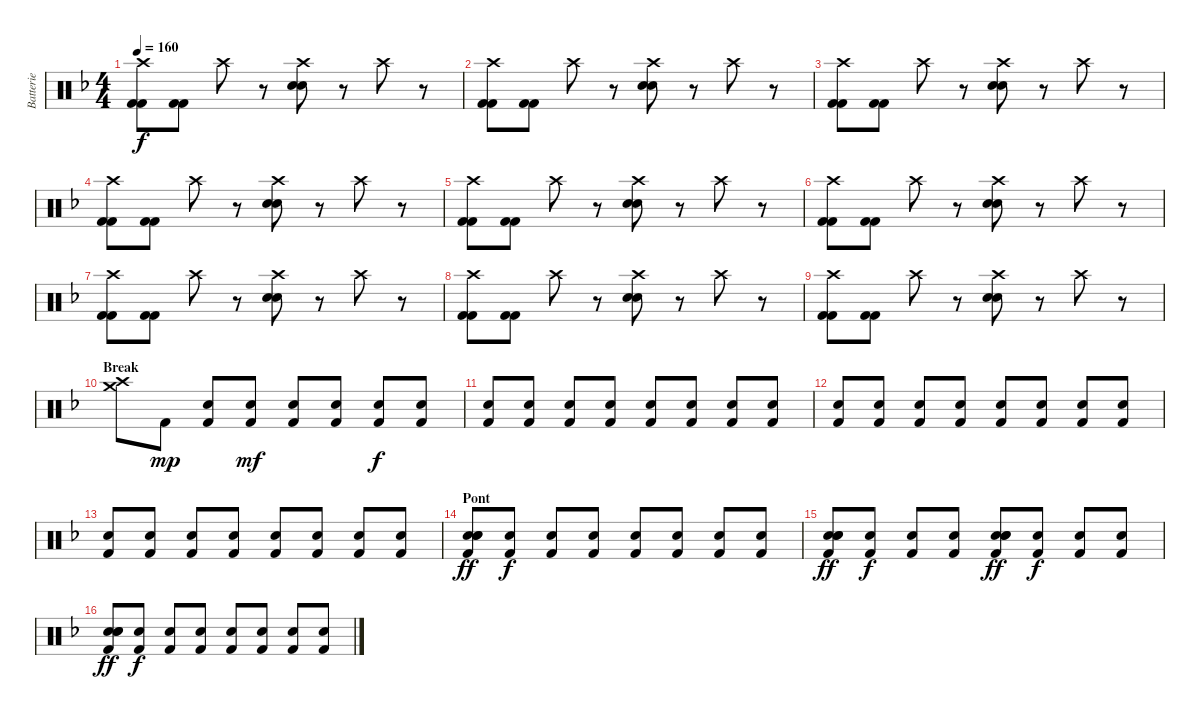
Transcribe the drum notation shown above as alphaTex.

\track ("Batterie" "Batterie") {instrument percussion}
\staff {score}
\articulation defaults
\ts (4 4)
\tempo 160
\clef neutral
\ks f
("Crash high (hit)" "Kick (hit) 2" "Kick (hit) 2").8{dy f} ("Kick (hit) 2" "Kick (hit) 2").8 "Crash high (hit)".8 r.8 ("Crash high (hit)" "Electric Snare (hit)" "Electric Snare (hit)").8 r.8 "Crash high (hit)".8 r.8 |
("Crash high (hit)" "Kick (hit) 2" "Kick (hit) 2").8 ("Kick (hit) 2" "Kick (hit) 2").8 "Crash high (hit)".8 r.8 ("Crash high (hit)" "Electric Snare (hit)" "Electric Snare (hit)").8 r.8 "Crash high (hit)".8 r.8 |
("Crash high (hit)" "Kick (hit) 2" "Kick (hit) 2").8 ("Kick (hit) 2" "Kick (hit) 2").8 "Crash high (hit)".8 r.8 ("Crash high (hit)" "Electric Snare (hit)" "Electric Snare (hit)").8 r.8 "Crash high (hit)".8 r.8 |
("Crash high (hit)" "Kick (hit) 2" "Kick (hit) 2").8 ("Kick (hit) 2" "Kick (hit) 2").8 "Crash high (hit)".8 r.8 ("Crash high (hit)" "Electric Snare (hit)" "Electric Snare (hit)").8 r.8 "Crash high (hit)".8 r.8 |
("Crash high (hit)" "Kick (hit) 2" "Kick (hit) 2").8 ("Kick (hit) 2" "Kick (hit) 2").8 "Crash high (hit)".8 r.8 ("Crash high (hit)" "Electric Snare (hit)" "Electric Snare (hit)").8 r.8 "Crash high (hit)".8 r.8 |
("Crash high (hit)" "Kick (hit) 2" "Kick (hit) 2").8 ("Kick (hit) 2" "Kick (hit) 2").8 "Crash high (hit)".8 r.8 ("Crash high (hit)" "Electric Snare (hit)" "Electric Snare (hit)").8 r.8 "Crash high (hit)".8 r.8 |
("Crash high (hit)" "Kick (hit) 2" "Kick (hit) 2").8 ("Kick (hit) 2" "Kick (hit) 2").8 "Crash high (hit)".8 r.8 ("Crash high (hit)" "Electric Snare (hit)" "Electric Snare (hit)").8 r.8 "Crash high (hit)".8 r.8 |
("Crash high (hit)" "Kick (hit) 2" "Kick (hit) 2").8 ("Kick (hit) 2" "Kick (hit) 2").8 "Crash high (hit)".8 r.8 ("Crash high (hit)" "Electric Snare (hit)" "Electric Snare (hit)").8 r.8 "Crash high (hit)".8 r.8 |
("Crash high (hit)" "Kick (hit) 2" "Kick (hit) 2").8 ("Kick (hit) 2" "Kick (hit) 2").8 "Crash high (hit)".8 r.8 ("Crash high (hit)" "Electric Snare (hit)" "Electric Snare (hit)").8 r.8 "Crash high (hit)".8 r.8 |
\section ("" "Break")
("Crash high (hit)" "Crash medium (hit)").8 "Kick (hit) 2".8{dy mp} ("Snare (hit) 2" "Kick (hit) 2").8 ("Snare (hit) 2" "Kick (hit) 2").8{dy mf} ("Snare (hit) 2" "Kick (hit) 2").8 ("Snare (hit) 2" "Kick (hit) 2").8 ("Snare (hit) 2" "Kick (hit) 2").8{dy f} ("Snare (hit) 2" "Kick (hit) 2").8 |
("Snare (hit) 2" "Kick (hit) 2").8 ("Snare (hit) 2" "Kick (hit) 2").8 ("Snare (hit) 2" "Kick (hit) 2").8 ("Snare (hit) 2" "Kick (hit) 2").8 ("Snare (hit) 2" "Kick (hit) 2").8 ("Snare (hit) 2" "Kick (hit) 2").8 ("Snare (hit) 2" "Kick (hit) 2").8 ("Snare (hit) 2" "Kick (hit) 2").8 |
("Snare (hit) 2" "Kick (hit) 2").8 ("Snare (hit) 2" "Kick (hit) 2").8 ("Snare (hit) 2" "Kick (hit) 2").8 ("Snare (hit) 2" "Kick (hit) 2").8 ("Snare (hit) 2" "Kick (hit) 2").8 ("Snare (hit) 2" "Kick (hit) 2").8 ("Snare (hit) 2" "Kick (hit) 2").8 ("Snare (hit) 2" "Kick (hit) 2").8 |
("Snare (hit) 2" "Kick (hit) 2").8 ("Snare (hit) 2" "Kick (hit) 2").8 ("Snare (hit) 2" "Kick (hit) 2").8 ("Snare (hit) 2" "Kick (hit) 2").8 ("Snare (hit) 2" "Kick (hit) 2").8 ("Snare (hit) 2" "Kick (hit) 2").8 ("Snare (hit) 2" "Kick (hit) 2").8 ("Snare (hit) 2" "Kick (hit) 2").8 |
\section ("" "Pont")
("Electric Snare (hit)" "Electric Snare (hit)" "Snare (hit) 2" "Kick (hit) 2").8{dy ff} ("Snare (hit) 2" "Kick (hit) 2").8{dy f} ("Snare (hit) 2" "Kick (hit) 2").8 ("Snare (hit) 2" "Kick (hit) 2").8 ("Snare (hit) 2" "Kick (hit) 2").8 ("Snare (hit) 2" "Kick (hit) 2").8 ("Snare (hit) 2" "Kick (hit) 2").8 ("Snare (hit) 2" "Kick (hit) 2").8 |
("Electric Snare (hit)" "Electric Snare (hit)" "Snare (hit) 2" "Kick (hit) 2").8{dy ff} ("Snare (hit) 2" "Kick (hit) 2").8{dy f} ("Snare (hit) 2" "Kick (hit) 2").8 ("Snare (hit) 2" "Kick (hit) 2").8 ("Electric Snare (hit)" "Electric Snare (hit)" "Snare (hit) 2" "Kick (hit) 2").8{dy ff} ("Snare (hit) 2" "Kick (hit) 2").8{dy f} ("Snare (hit) 2" "Kick (hit) 2").8 ("Snare (hit) 2" "Kick (hit) 2").8 |
("Electric Snare (hit)" "Electric Snare (hit)" "Snare (hit) 2" "Kick (hit) 2").8{dy ff} ("Snare (hit) 2" "Kick (hit) 2").8{dy f} ("Snare (hit) 2" "Kick (hit) 2").8 ("Snare (hit) 2" "Kick (hit) 2").8 ("Snare (hit) 2" "Kick (hit) 2").8 ("Snare (hit) 2" "Kick (hit) 2").8 ("Snare (hit) 2" "Kick (hit) 2").8 ("Snare (hit) 2" "Kick (hit) 2").8
